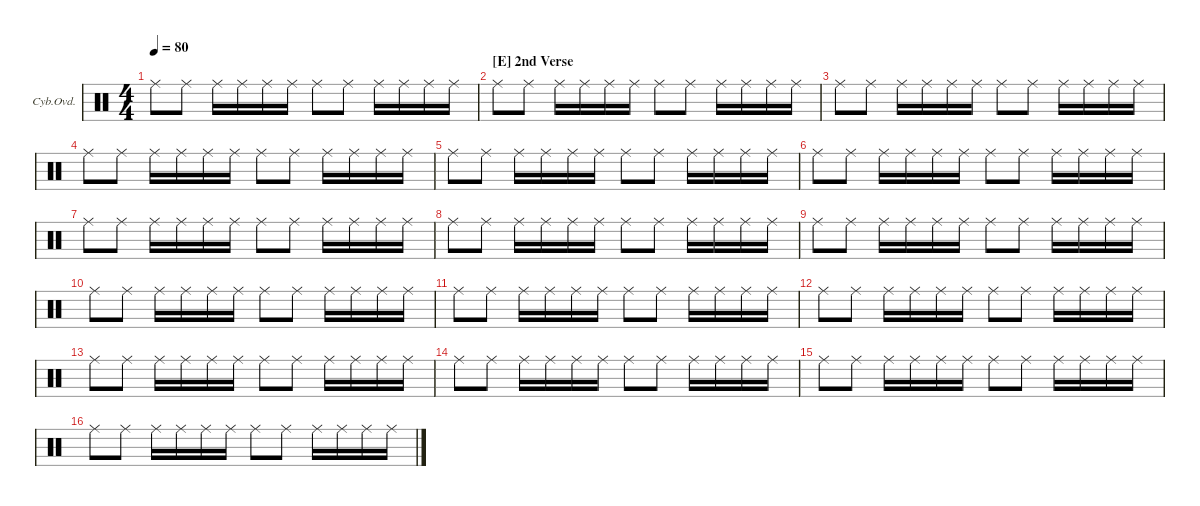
\defaultSystemsLayout 4
\hideDynamics
\bracketExtendMode groupsimilarinstruments
\firstSystemTrackNameOrientation horizontal
\otherSystemsTrackNameOrientation horizontal
\track ("Cymbal Overdub" "Cyb.Ovd.") {multiBarRest instrument percussion}
\staff {score}
\articulation defaults
\ts (4 4)
\tempo 80
\clef neutral
\ks c "Ride (middle)".8{dy p} "Ride (middle)".8 "Ride (middle)".16 "Ride (middle)".16 "Ride (middle)".16 "Ride (middle)".16 "Ride (middle)".8 "Ride (middle)".8 "Ride (middle)".16 "Ride (middle)".16 "Ride (middle)".16 "Ride (middle)".16
|
\section ("E" "2nd Verse")
"Ride (middle)".8 "Ride (middle)".8 "Ride (middle)".16 "Ride (middle)".16 "Ride (middle)".16 "Ride (middle)".16 "Ride (middle)".8 "Ride (middle)".8 "Ride (middle)".16 "Ride (middle)".16 "Ride (middle)".16 "Ride (middle)".16 |
"Ride (middle)".8 "Ride (middle)".8 "Ride (middle)".16 "Ride (middle)".16 "Ride (middle)".16 "Ride (middle)".16 "Ride (middle)".8 "Ride (middle)".8 "Ride (middle)".16 "Ride (middle)".16 "Ride (middle)".16 "Ride (middle)".16 |
"Ride (middle)".8 "Ride (middle)".8 "Ride (middle)".16 "Ride (middle)".16 "Ride (middle)".16 "Ride (middle)".16 "Ride (middle)".8 "Ride (middle)".8 "Ride (middle)".16 "Ride (middle)".16 "Ride (middle)".16 "Ride (middle)".16 |
"Ride (middle)".8 "Ride (middle)".8 "Ride (middle)".16 "Ride (middle)".16 "Ride (middle)".16 "Ride (middle)".16 "Ride (middle)".8 "Ride (middle)".8 "Ride (middle)".16 "Ride (middle)".16 "Ride (middle)".16 "Ride (middle)".16 |
"Ride (middle)".8 "Ride (middle)".8 "Ride (middle)".16 "Ride (middle)".16 "Ride (middle)".16 "Ride (middle)".16 "Ride (middle)".8 "Ride (middle)".8 "Ride (middle)".16 "Ride (middle)".16 "Ride (middle)".16 "Ride (middle)".16 |
"Ride (middle)".8 "Ride (middle)".8 "Ride (middle)".16 "Ride (middle)".16 "Ride (middle)".16 "Ride (middle)".16 "Ride (middle)".8 "Ride (middle)".8 "Ride (middle)".16 "Ride (middle)".16 "Ride (middle)".16 "Ride (middle)".16 |
"Ride (middle)".8 "Ride (middle)".8 "Ride (middle)".16 "Ride (middle)".16 "Ride (middle)".16 "Ride (middle)".16 "Ride (middle)".8 "Ride (middle)".8 "Ride (middle)".16 "Ride (middle)".16 "Ride (middle)".16 "Ride (middle)".16 |
"Ride (middle)".8 "Ride (middle)".8 "Ride (middle)".16 "Ride (middle)".16 "Ride (middle)".16 "Ride (middle)".16 "Ride (middle)".8 "Ride (middle)".8 "Ride (middle)".16 "Ride (middle)".16 "Ride (middle)".16 "Ride (middle)".16 |
"Ride (middle)".8 "Ride (middle)".8 "Ride (middle)".16 "Ride (middle)".16 "Ride (middle)".16 "Ride (middle)".16 "Ride (middle)".8 "Ride (middle)".8 "Ride (middle)".16 "Ride (middle)".16 "Ride (middle)".16 "Ride (middle)".16 |
"Ride (middle)".8 "Ride (middle)".8 "Ride (middle)".16 "Ride (middle)".16 "Ride (middle)".16 "Ride (middle)".16 "Ride (middle)".8 "Ride (middle)".8 "Ride (middle)".16 "Ride (middle)".16 "Ride (middle)".16 "Ride (middle)".16 |
"Ride (middle)".8 "Ride (middle)".8 "Ride (middle)".16 "Ride (middle)".16 "Ride (middle)".16 "Ride (middle)".16 "Ride (middle)".8 "Ride (middle)".8 "Ride (middle)".16 "Ride (middle)".16 "Ride (middle)".16 "Ride (middle)".16 |
"Ride (middle)".8 "Ride (middle)".8 "Ride (middle)".16 "Ride (middle)".16 "Ride (middle)".16 "Ride (middle)".16 "Ride (middle)".8 "Ride (middle)".8 "Ride (middle)".16 "Ride (middle)".16 "Ride (middle)".16 "Ride (middle)".16 |
"Ride (middle)".8 "Ride (middle)".8 "Ride (middle)".16 "Ride (middle)".16 "Ride (middle)".16 "Ride (middle)".16 "Ride (middle)".8 "Ride (middle)".8 "Ride (middle)".16 "Ride (middle)".16 "Ride (middle)".16 "Ride (middle)".16 |
"Ride (middle)".8 "Ride (middle)".8 "Ride (middle)".16 "Ride (middle)".16 "Ride (middle)".16 "Ride (middle)".16 "Ride (middle)".8 "Ride (middle)".8 "Ride (middle)".16 "Ride (middle)".16 "Ride (middle)".16 "Ride (middle)".16 |
"Ride (middle)".8 "Ride (middle)".8 "Ride (middle)".16 "Ride (middle)".16 "Ride (middle)".16 "Ride (middle)".16 "Ride (middle)".8 "Ride (middle)".8 "Ride (middle)".16 "Ride (middle)".16 "Ride (middle)".16 "Ride (middle)".16
